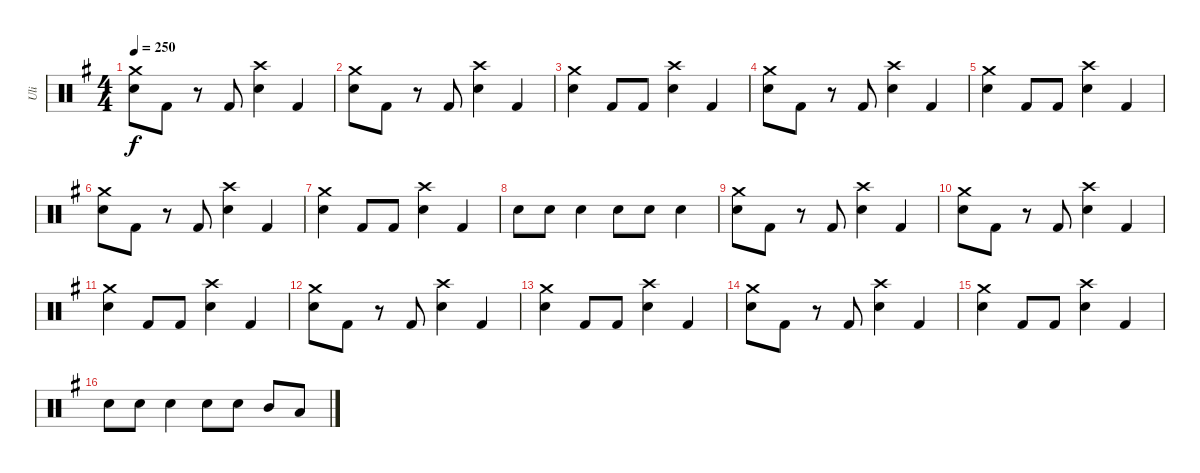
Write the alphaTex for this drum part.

\track ("Uli" "Uli") {instrument percussion}
\staff {score}
\articulation defaults
\ts (4 4)
\tempo 250
\clef neutral
\ks g
("Crash medium (hit)" "Snare (hit) 2").8{dy f} "Kick (hit) 2".8 r.8 "Kick (hit) 2".8 ("Crash high (hit)" "Snare (hit) 2").4 "Kick (hit) 2".4 |
("Crash medium (hit)" "Snare (hit) 2").8 "Kick (hit) 2".8 r.8 "Kick (hit) 2".8 ("Crash high (hit)" "Snare (hit) 2").4 "Kick (hit) 2".4 |
("Crash medium (hit)" "Snare (hit) 2").4 "Kick (hit) 2".8 "Kick (hit) 2".8 ("Crash high (hit)" "Snare (hit) 2").4 "Kick (hit) 2".4 |
("Crash medium (hit)" "Snare (hit) 2").8 "Kick (hit) 2".8 r.8 "Kick (hit) 2".8 ("Crash high (hit)" "Snare (hit) 2").4 "Kick (hit) 2".4 |
("Crash medium (hit)" "Snare (hit) 2").4 "Kick (hit) 2".8 "Kick (hit) 2".8 ("Crash high (hit)" "Snare (hit) 2").4 "Kick (hit) 2".4 |
("Crash medium (hit)" "Snare (hit) 2").8 "Kick (hit) 2".8 r.8 "Kick (hit) 2".8 ("Crash high (hit)" "Snare (hit) 2").4 "Kick (hit) 2".4 |
("Crash medium (hit)" "Snare (hit) 2").4 "Kick (hit) 2".8 "Kick (hit) 2".8 ("Crash high (hit)" "Snare (hit) 2").4 "Kick (hit) 2".4 |
"Snare (hit) 2".8 "Snare (hit) 2".8 "Snare (hit) 2".4 "Snare (hit) 2".8 "Snare (hit) 2".8 "Snare (hit) 2".4 |
("Crash medium (hit)" "Snare (hit) 2").8 "Kick (hit) 2".8 r.8 "Kick (hit) 2".8 ("Crash high (hit)" "Snare (hit) 2").4 "Kick (hit) 2".4 |
("Crash medium (hit)" "Snare (hit) 2").8 "Kick (hit) 2".8 r.8 "Kick (hit) 2".8 ("Crash high (hit)" "Snare (hit) 2").4 "Kick (hit) 2".4 |
("Crash medium (hit)" "Snare (hit) 2").4 "Kick (hit) 2".8 "Kick (hit) 2".8 ("Crash high (hit)" "Snare (hit) 2").4 "Kick (hit) 2".4 |
("Crash medium (hit)" "Snare (hit) 2").8 "Kick (hit) 2".8 r.8 "Kick (hit) 2".8 ("Crash high (hit)" "Snare (hit) 2").4 "Kick (hit) 2".4 |
("Crash medium (hit)" "Snare (hit) 2").4 "Kick (hit) 2".8 "Kick (hit) 2".8 ("Crash high (hit)" "Snare (hit) 2").4 "Kick (hit) 2".4 |
("Crash medium (hit)" "Snare (hit) 2").8 "Kick (hit) 2".8 r.8 "Kick (hit) 2".8 ("Crash high (hit)" "Snare (hit) 2").4 "Kick (hit) 2".4 |
("Crash medium (hit)" "Snare (hit) 2").4 "Kick (hit) 2".8 "Kick (hit) 2".8 ("Crash high (hit)" "Snare (hit) 2").4 "Kick (hit) 2".4 |
"Snare (hit) 2".8 "Snare (hit) 2".8 "Snare (hit) 2".4 "Snare (hit) 2".8 "Snare (hit) 2".8 "Mid Tom (hit)".8 "Low Tom (hit)".8
